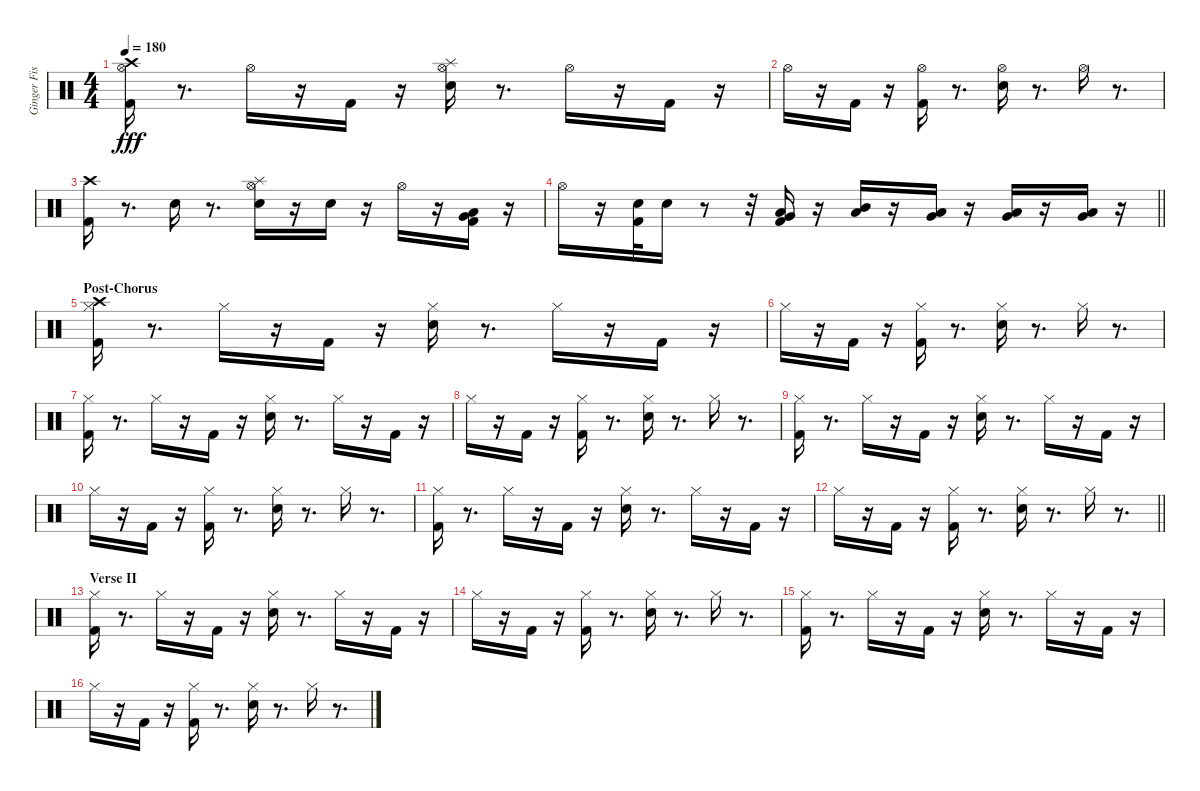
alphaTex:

\track ("Ginger Fish" "Ginger Fis") {instrument percussion}
\staff {score}
\articulation defaults
\ts (4 4)
\tempo 180
\clef neutral
\ks c
("Crash high (hit)" "Kick (hit) 2" "Hi-Hat (open)").16{dy fff} r.8{d} "Hi-Hat (open)".16 r.16 "Kick (hit) 2".16 r.16 ("Splash (hit)" "Electric Snare (hit)" "Hi-Hat (open)").16 r.8{d} "Hi-Hat (open)".16 r.16 "Kick (hit) 2".16 r.16 |
"Hi-Hat (open)".16 r.16 "Kick (hit) 2".16 r.16 ("Hi-Hat (open)" "Kick (hit) 2").16 r.8{d} ("Hi-Hat (open)" "Electric Snare (hit)").16 r.8{d} "Hi-Hat (open)".16 r.8{d} |
("Crash high (hit)" "Kick (hit) 2").16 r.8{d} "Electric Snare (hit)".16 r.8{d} ("Splash (hit)" "Hi-Hat (open)" "Electric Snare (hit)").16 r.16 "Electric Snare (hit)".16 r.16 "Hi-Hat (open)".16 r.16 ("Very Low Tom (hit)" "Low Floor Tom (hit)" "Kick (hit) 2").16 r.16 |
\barLineRight lightlight "Hi-Hat (open)".16
r.16 ("Electric Snare (hit)" "Kick (hit) 2").32 "Electric Snare (hit)".16 r.8 r.32 ("Low Tom (hit)" "Very Low Tom (hit)" "Kick (hit) 2").16 r.16 ("Low Tom (hit)" "Mid Tom (hit)").16 r.16 ("Very Low Tom (hit)" "Low Tom (hit)").16 r.16 ("Low Tom (hit)" "Very Low Tom (hit)").16 r.16 ("Very Low Tom (hit)" "Low Floor Tom (hit)").16 r.16 |
\section ("" "Post-Chorus")
("Crash high (hit)" "Kick (hit) 2" "Hi-Hat (closed)").16 r.8{d} "Hi-Hat (closed)".16 r.16 "Kick (hit) 2".16 r.16 ("Electric Snare (hit)" "Hi-Hat (closed)").16 r.8{d} "Hi-Hat (closed)".16 r.16 "Kick (hit) 2".16 r.16 |
"Hi-Hat (closed)".16 r.16 "Kick (hit) 2".16 r.16 ("Hi-Hat (closed)" "Kick (hit) 2").16 r.8{d} ("Hi-Hat (closed)" "Electric Snare (hit)").16 r.8{d} "Hi-Hat (closed)".16 r.8{d} |
("Kick (hit) 2" "Hi-Hat (closed)").16 r.8{d} "Hi-Hat (closed)".16 r.16 "Kick (hit) 2".16 r.16 ("Electric Snare (hit)" "Hi-Hat (closed)").16 r.8{d} "Hi-Hat (closed)".16 r.16 "Kick (hit) 2".16 r.16 |
"Hi-Hat (closed)".16 r.16 "Kick (hit) 2".16 r.16 ("Hi-Hat (closed)" "Kick (hit) 2").16 r.8{d} ("Hi-Hat (closed)" "Electric Snare (hit)").16 r.8{d} "Hi-Hat (closed)".16 r.8{d} |
("Kick (hit) 2" "Hi-Hat (closed)").16 r.8{d} "Hi-Hat (closed)".16 r.16 "Kick (hit) 2".16 r.16 ("Electric Snare (hit)" "Hi-Hat (closed)").16 r.8{d} "Hi-Hat (closed)".16 r.16 "Kick (hit) 2".16 r.16 |
"Hi-Hat (closed)".16 r.16 "Kick (hit) 2".16 r.16 ("Hi-Hat (closed)" "Kick (hit) 2").16 r.8{d} ("Hi-Hat (closed)" "Electric Snare (hit)").16 r.8{d} "Hi-Hat (closed)".16 r.8{d} |
("Kick (hit) 2" "Hi-Hat (closed)").16 r.8{d} "Hi-Hat (closed)".16 r.16 "Kick (hit) 2".16 r.16 ("Electric Snare (hit)" "Hi-Hat (closed)").16 r.8{d} "Hi-Hat (closed)".16 r.16 "Kick (hit) 2".16 r.16 |
\barLineRight lightlight "Hi-Hat (closed)".16
r.16 "Kick (hit) 2".16 r.16 ("Hi-Hat (closed)" "Kick (hit) 2").16 r.8{d} ("Hi-Hat (closed)" "Electric Snare (hit)").16 r.8{d} "Hi-Hat (closed)".16 r.8{d} |
\section ("" "Verse II")
("Kick (hit) 2" "Hi-Hat (closed)").16 r.8{d} "Hi-Hat (closed)".16 r.16 "Kick (hit) 2".16 r.16 ("Electric Snare (hit)" "Hi-Hat (closed)").16 r.8{d} "Hi-Hat (closed)".16 r.16 "Kick (hit) 2".16 r.16 |
"Hi-Hat (closed)".16 r.16 "Kick (hit) 2".16 r.16 ("Hi-Hat (closed)" "Kick (hit) 2").16 r.8{d} ("Hi-Hat (closed)" "Electric Snare (hit)").16 r.8{d} "Hi-Hat (closed)".16 r.8{d} |
("Kick (hit) 2" "Hi-Hat (closed)").16 r.8{d} "Hi-Hat (closed)".16 r.16 "Kick (hit) 2".16 r.16 ("Electric Snare (hit)" "Hi-Hat (closed)").16 r.8{d} "Hi-Hat (closed)".16 r.16 "Kick (hit) 2".16 r.16 |
"Hi-Hat (closed)".16 r.16 "Kick (hit) 2".16 r.16 ("Hi-Hat (closed)" "Kick (hit) 2").16 r.8{d} ("Hi-Hat (closed)" "Electric Snare (hit)").16 r.8{d} "Hi-Hat (closed)".16 r.8{d}
